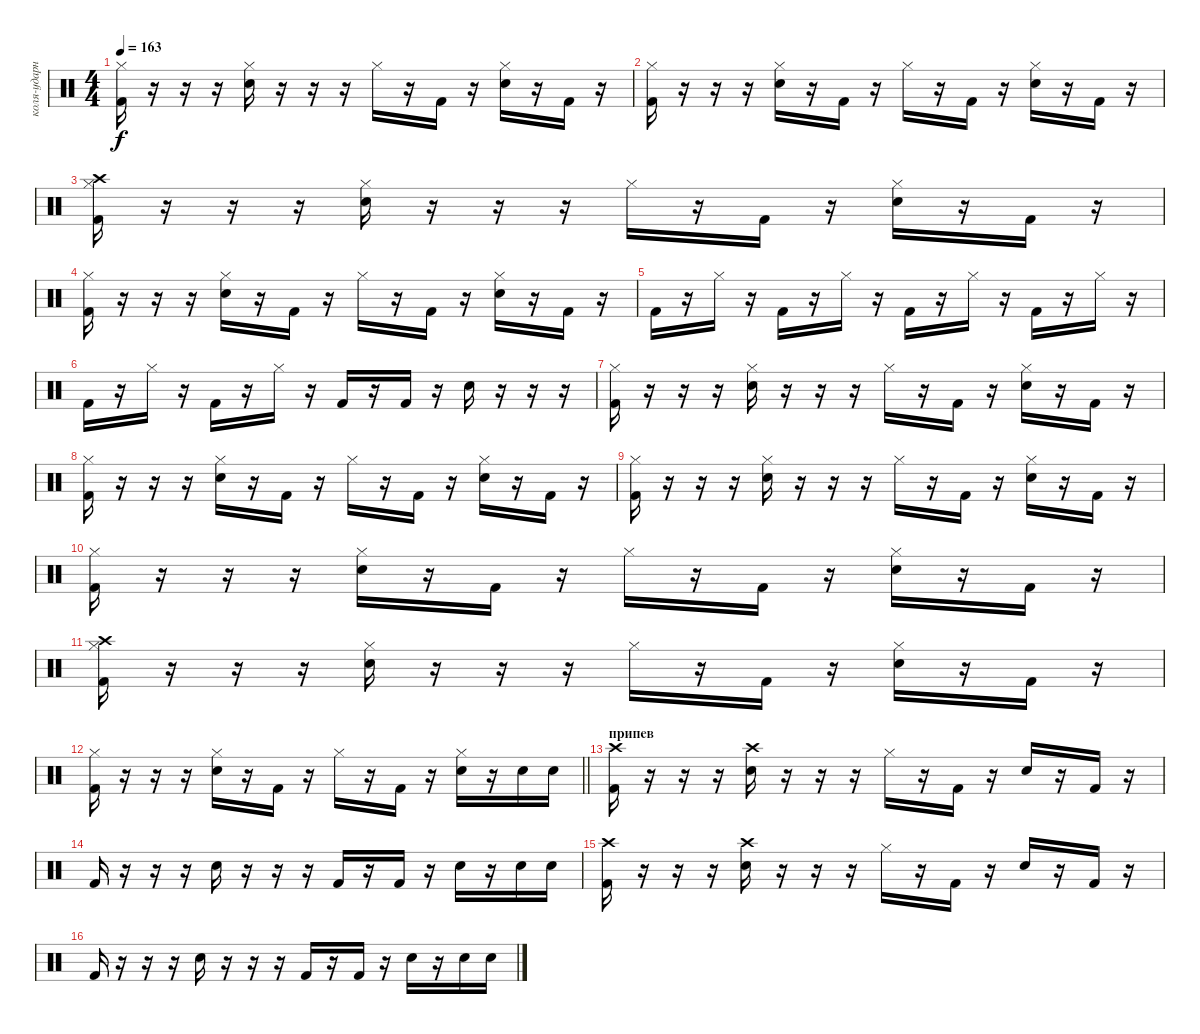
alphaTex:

\track ("коля-ударные" "коля-ударн") {instrument percussion}
\staff {score}
\articulation defaults
\ts (4 4)
\tempo 163
\clef neutral
\ks c
("Kick (hit) 2" "Hi-Hat (closed)").16{dy f} r.16 r.16 r.16 ("Electric Snare (hit)" "Hi-Hat (closed)").16 r.16 r.16 r.16 "Hi-Hat (closed)".16 r.16 "Kick (hit) 2".16 r.16 ("Electric Snare (hit)" "Hi-Hat (closed)").16 r.16 "Kick (hit) 2".16 r.16 |
("Kick (hit) 2" "Hi-Hat (closed)").16 r.16 r.16 r.16 ("Electric Snare (hit)" "Hi-Hat (closed)").16 r.16 "Kick (hit) 2".16 r.16 "Hi-Hat (closed)".16 r.16 "Kick (hit) 2".16 r.16 ("Electric Snare (hit)" "Hi-Hat (closed)").16 r.16 "Kick (hit) 2".16 r.16 |
("Kick (hit) 2" "Crash high (hit)" "Hi-Hat (closed)").16 r.16 r.16 r.16 ("Electric Snare (hit)" "Hi-Hat (closed)").16 r.16 r.16 r.16 "Hi-Hat (closed)".16 r.16 "Kick (hit) 2".16 r.16 ("Electric Snare (hit)" "Hi-Hat (closed)").16 r.16 "Kick (hit) 2".16 r.16 |
("Kick (hit) 2" "Hi-Hat (closed)").16 r.16 r.16 r.16 ("Electric Snare (hit)" "Hi-Hat (closed)").16 r.16 "Kick (hit) 2".16 r.16 "Hi-Hat (closed)".16 r.16 "Kick (hit) 2".16 r.16 ("Electric Snare (hit)" "Hi-Hat (closed)").16 r.16 "Kick (hit) 2".16 r.16 |
"Kick (hit) 2".16 r.16 "Hi-Hat (closed)".16 r.16 "Kick (hit) 2".16 r.16 "Hi-Hat (closed)".16 r.16 "Kick (hit) 2".16 r.16 "Hi-Hat (closed)".16 r.16 "Kick (hit) 2".16 r.16 "Hi-Hat (closed)".16 r.16 |
"Kick (hit) 2".16 r.16 "Hi-Hat (closed)".16 r.16 "Kick (hit) 2".16 r.16 "Hi-Hat (closed)".16 r.16 "Kick (hit) 2".16 r.16 "Kick (hit) 2".16 r.16 "Electric Snare (hit)".16 r.16 r.16 r.16 |
("Kick (hit) 2" "Hi-Hat (closed)").16 r.16 r.16 r.16 ("Electric Snare (hit)" "Hi-Hat (closed)").16 r.16 r.16 r.16 "Hi-Hat (closed)".16 r.16 "Kick (hit) 2".16 r.16 ("Electric Snare (hit)" "Hi-Hat (closed)").16 r.16 "Kick (hit) 2".16 r.16 |
("Kick (hit) 2" "Hi-Hat (closed)").16 r.16 r.16 r.16 ("Electric Snare (hit)" "Hi-Hat (closed)").16 r.16 "Kick (hit) 2".16 r.16 "Hi-Hat (closed)".16 r.16 "Kick (hit) 2".16 r.16 ("Electric Snare (hit)" "Hi-Hat (closed)").16 r.16 "Kick (hit) 2".16 r.16 |
("Kick (hit) 2" "Hi-Hat (closed)").16 r.16 r.16 r.16 ("Electric Snare (hit)" "Hi-Hat (closed)").16 r.16 r.16 r.16 "Hi-Hat (closed)".16 r.16 "Kick (hit) 2".16 r.16 ("Electric Snare (hit)" "Hi-Hat (closed)").16 r.16 "Kick (hit) 2".16 r.16 |
("Kick (hit) 2" "Hi-Hat (closed)").16 r.16 r.16 r.16 ("Electric Snare (hit)" "Hi-Hat (closed)").16 r.16 "Kick (hit) 2".16 r.16 "Hi-Hat (closed)".16 r.16 "Kick (hit) 2".16 r.16 ("Electric Snare (hit)" "Hi-Hat (closed)").16 r.16 "Kick (hit) 2".16 r.16 |
("Kick (hit) 2" "Crash high (hit)" "Hi-Hat (closed)").16 r.16 r.16 r.16 ("Electric Snare (hit)" "Hi-Hat (closed)").16 r.16 r.16 r.16 "Hi-Hat (closed)".16 r.16 "Kick (hit) 2".16 r.16 ("Electric Snare (hit)" "Hi-Hat (closed)").16 r.16 "Kick (hit) 2".16 r.16 |
\barLineRight lightlight
("Kick (hit) 2" "Hi-Hat (closed)").16 r.16 r.16 r.16 ("Electric Snare (hit)" "Hi-Hat (closed)").16 r.16 "Kick (hit) 2".16 r.16 "Hi-Hat (closed)".16 r.16 "Kick (hit) 2".16 r.16 ("Electric Snare (hit)" "Hi-Hat (closed)").16 r.16 "Electric Snare (hit)".16 "Electric Snare (hit)".16 |
\section ("" "припев")
("Kick (hit) 2" "Crash high (hit)").16 r.16 r.16 r.16 ("Electric Snare (hit)" "Crash high (hit)").16 r.16 r.16 r.16 "Hi-Hat (closed)".16 r.16 "Kick (hit) 2".16 r.16 "Electric Snare (hit)".16 r.16 "Kick (hit) 2".16 r.16 |
"Kick (hit) 2".16 r.16 r.16 r.16 "Electric Snare (hit)".16 r.16 r.16 r.16 "Kick (hit) 2".16 r.16 "Kick (hit) 2".16 r.16 "Electric Snare (hit)".16 r.16 "Electric Snare (hit)".16 "Electric Snare (hit)".16 |
("Kick (hit) 2" "Crash high (hit)").16 r.16 r.16 r.16 ("Electric Snare (hit)" "Crash high (hit)").16 r.16 r.16 r.16 "Hi-Hat (closed)".16 r.16 "Kick (hit) 2".16 r.16 "Electric Snare (hit)".16 r.16 "Kick (hit) 2".16 r.16 |
"Kick (hit) 2".16 r.16 r.16 r.16 "Electric Snare (hit)".16 r.16 r.16 r.16 "Kick (hit) 2".16 r.16 "Kick (hit) 2".16 r.16 "Electric Snare (hit)".16 r.16 "Electric Snare (hit)".16 "Electric Snare (hit)".16
